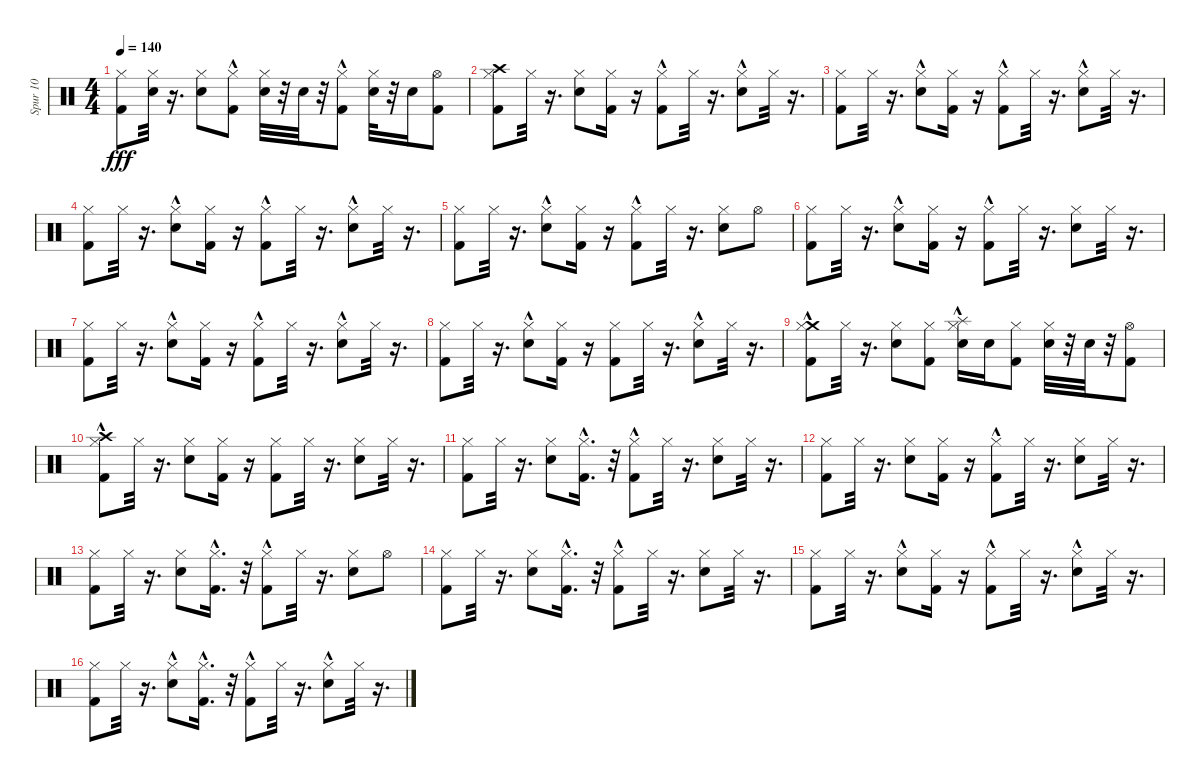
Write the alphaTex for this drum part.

\track ("Spur 10" "Spur 10") {instrument percussion}
\staff {score}
\articulation defaults
\ts (4 4)
\tempo 140
\clef neutral
\ks c
("Kick (hit) 2" "Hi-Hat (closed)").8{dy fff} ("Snare (hit) 2" "Hi-Hat (closed)").32 r.16{d} ("Snare (hit) 2" "Hi-Hat (closed)").8 ("Kick (hit) 2"{hac} "Hi-Hat (closed)").8 ("Snare (hit) 2" "Hi-Hat (closed)").32 r.32 "Snare (hit) 2".32 r.32 ("Kick (hit) 2"{hac} "Hi-Hat (closed)").8 ("Snare (hit) 2" "Hi-Hat (closed)").32 r.32 "Snare (hit) 2".16 ("Kick (hit) 2" "Hi-Hat (open)").8 |
("Kick (hit) 2" "Crash high (hit)" "Hi-Hat (closed)").8 "Hi-Hat (closed)".32 r.16{d} ("Snare (hit) 2" "Hi-Hat (closed)").8 ("Kick (hit) 2" "Hi-Hat (closed)").16 r.16 ("Kick (hit) 2"{hac} "Hi-Hat (closed)").8 "Hi-Hat (closed)".32 r.16{d} ("Snare (hit) 2"{hac} "Hi-Hat (closed)").8 "Hi-Hat (closed)".32 r.16{d} |
("Kick (hit) 2" "Hi-Hat (closed)").8 "Hi-Hat (closed)".32 r.16{d} ("Snare (hit) 2"{hac} "Hi-Hat (closed)").8 ("Kick (hit) 2" "Hi-Hat (closed)").16 r.16 ("Kick (hit) 2"{hac} "Hi-Hat (closed)").8 "Hi-Hat (closed)".32 r.16{d} ("Snare (hit) 2"{hac} "Hi-Hat (closed)").8 "Hi-Hat (closed)".32 r.16{d} |
("Kick (hit) 2" "Hi-Hat (closed)").8 "Hi-Hat (closed)".32 r.16{d} ("Snare (hit) 2"{hac} "Hi-Hat (closed)").8 ("Kick (hit) 2" "Hi-Hat (closed)").16 r.16 ("Kick (hit) 2"{hac} "Hi-Hat (closed)").8 "Hi-Hat (closed)".32 r.16{d} ("Snare (hit) 2"{hac} "Hi-Hat (closed)").8 "Hi-Hat (closed)".32 r.16{d} |
("Kick (hit) 2" "Hi-Hat (closed)").8 "Hi-Hat (closed)".32 r.16{d} ("Snare (hit) 2"{hac} "Hi-Hat (closed)").8 ("Kick (hit) 2" "Hi-Hat (closed)").16 r.16 ("Kick (hit) 2"{hac} "Hi-Hat (closed)").8 "Hi-Hat (closed)".32 r.16{d} ("Snare (hit) 2" "Hi-Hat (closed)").8 "Hi-Hat (open)".8 |
("Kick (hit) 2" "Hi-Hat (closed)").8 "Hi-Hat (closed)".32 r.16{d} ("Snare (hit) 2"{hac} "Hi-Hat (closed)").8 ("Kick (hit) 2" "Hi-Hat (closed)").16 r.16 ("Kick (hit) 2"{hac} "Hi-Hat (closed)").8 "Hi-Hat (closed)".32 r.16{d} ("Snare (hit) 2" "Hi-Hat (closed)").8 "Hi-Hat (closed)".32 r.16{d} |
("Kick (hit) 2" "Hi-Hat (closed)").8 "Hi-Hat (closed)".32 r.16{d} ("Snare (hit) 2"{hac} "Hi-Hat (closed)").8 ("Kick (hit) 2" "Hi-Hat (closed)").16 r.16 ("Kick (hit) 2"{hac} "Hi-Hat (closed)").8 "Hi-Hat (closed)".32 r.16{d} ("Snare (hit) 2"{hac} "Hi-Hat (closed)").8 "Hi-Hat (closed)".32 r.16{d} |
("Kick (hit) 2" "Hi-Hat (closed)").8 "Hi-Hat (closed)".32 r.16{d} ("Snare (hit) 2"{hac} "Hi-Hat (closed)").8 ("Kick (hit) 2" "Hi-Hat (closed)").16 r.16 ("Kick (hit) 2" "Hi-Hat (closed)").8 "Hi-Hat (closed)".32 r.16{d} ("Snare (hit) 2"{hac} "Hi-Hat (closed)").8 "Hi-Hat (closed)".32 r.16{d} |
("Kick (hit) 2" "Crash medium (hit)"{hac} "Hi-Hat (closed)").8 "Hi-Hat (closed)".32 r.16{d} ("Snare (hit) 2" "Hi-Hat (closed)").8 ("Kick (hit) 2" "Hi-Hat (closed)").8 ("Snare (hit) 2" "Splash (hit)"{hac} "Hi-Hat (closed)").16 "Snare (hit) 2".16 ("Kick (hit) 2" "Hi-Hat (closed)").8 ("Snare (hit) 2" "Hi-Hat (closed)").32 r.32 "Snare (hit) 2".32 r.32 ("Kick (hit) 2" "Hi-Hat (open)").8 |
("Crash high (hit)"{hac} "Kick (hit) 2" "Hi-Hat (closed)").8 "Hi-Hat (closed)".32 r.16{d} ("Snare (hit) 2" "Hi-Hat (closed)").8 ("Kick (hit) 2" "Hi-Hat (closed)").16 r.16 ("Kick (hit) 2" "Hi-Hat (closed)").8 "Hi-Hat (closed)".32 r.16{d} ("Snare (hit) 2" "Hi-Hat (closed)").8 "Hi-Hat (closed)".32 r.16{d} |
("Kick (hit) 2" "Hi-Hat (closed)").8 "Hi-Hat (closed)".32 r.16{d} ("Snare (hit) 2" "Hi-Hat (closed)").8 ("Kick (hit) 2"{hac} "Hi-Hat (closed)").16{d} r.32 ("Kick (hit) 2"{hac} "Hi-Hat (closed)").8 "Hi-Hat (closed)".32 r.16{d} ("Snare (hit) 2" "Hi-Hat (closed)").8 "Hi-Hat (closed)".32 r.16{d} |
("Kick (hit) 2" "Hi-Hat (closed)").8 "Hi-Hat (closed)".32 r.16{d} ("Snare (hit) 2" "Hi-Hat (closed)").8 ("Kick (hit) 2" "Hi-Hat (closed)").16 r.16 ("Kick (hit) 2"{hac} "Hi-Hat (closed)").8 "Hi-Hat (closed)".32 r.16{d} ("Snare (hit) 2" "Hi-Hat (closed)").8 "Hi-Hat (closed)".32 r.16{d} |
("Kick (hit) 2" "Hi-Hat (closed)").8 "Hi-Hat (closed)".32 r.16{d} ("Snare (hit) 2" "Hi-Hat (closed)").8 ("Kick (hit) 2"{hac} "Hi-Hat (closed)").16{d} r.32 ("Kick (hit) 2"{hac} "Hi-Hat (closed)").8 "Hi-Hat (closed)".32 r.16{d} ("Snare (hit) 2" "Hi-Hat (closed)").8 "Hi-Hat (open)".8 |
("Kick (hit) 2" "Hi-Hat (closed)").8 "Hi-Hat (closed)".32 r.16{d} ("Snare (hit) 2" "Hi-Hat (closed)").8 ("Kick (hit) 2"{hac} "Hi-Hat (closed)").16{d} r.32 ("Kick (hit) 2"{hac} "Hi-Hat (closed)").8 "Hi-Hat (closed)".32 r.16{d} ("Snare (hit) 2" "Hi-Hat (closed)").8 "Hi-Hat (closed)".32 r.16{d} |
("Kick (hit) 2" "Hi-Hat (closed)").8 "Hi-Hat (closed)".32 r.16{d} ("Snare (hit) 2"{hac} "Hi-Hat (closed)").8 ("Kick (hit) 2" "Hi-Hat (closed)").16 r.16 ("Kick (hit) 2"{hac} "Hi-Hat (closed)").8 "Hi-Hat (closed)".32 r.16{d} ("Snare (hit) 2"{hac} "Hi-Hat (closed)").8 "Hi-Hat (closed)".32 r.16{d} |
("Kick (hit) 2" "Hi-Hat (closed)").8 "Hi-Hat (closed)".32 r.16{d} ("Snare (hit) 2"{hac} "Hi-Hat (closed)").8 ("Kick (hit) 2"{hac} "Hi-Hat (closed)").16{d} r.32 ("Kick (hit) 2"{hac} "Hi-Hat (closed)").8 "Hi-Hat (closed)".32 r.16{d} ("Snare (hit) 2"{hac} "Hi-Hat (closed)").8 "Hi-Hat (closed)".32 r.16{d}
